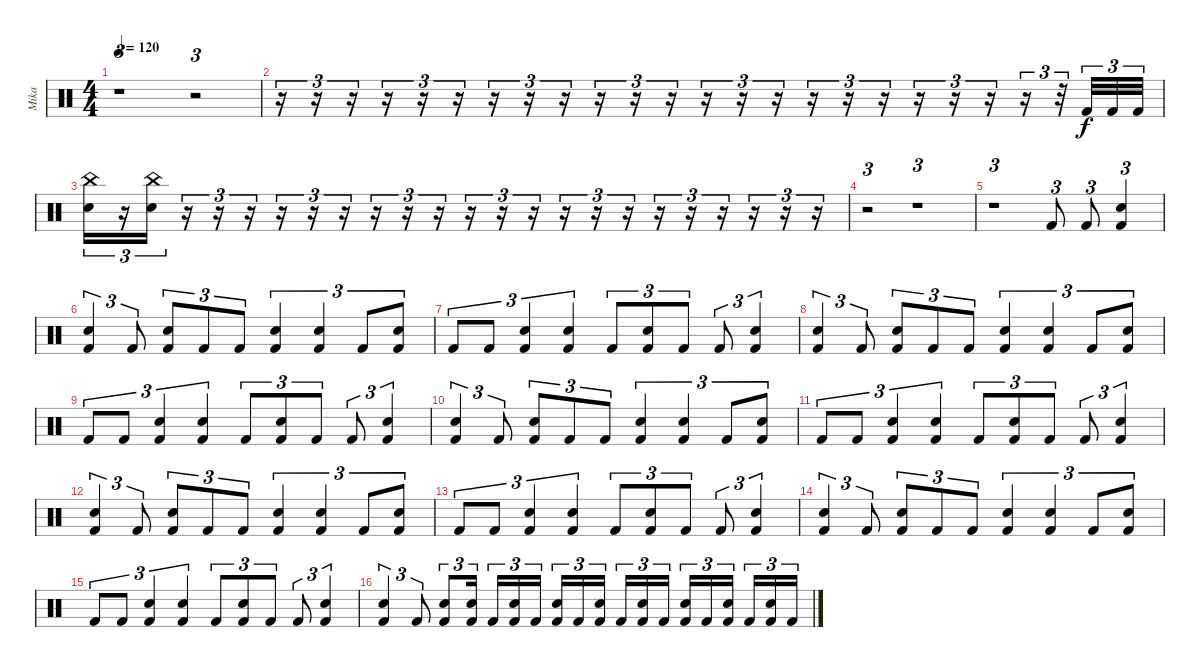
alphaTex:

\track ("Mika" "Mika") {instrument percussion}
\staff {score}
\articulation defaults
\ts (4 4)
\tempo 120
\clef neutral
\ks c
r.1{tu (3 2) dy f} r.2{tu (3 2)} |
r.16{tu (3 2)} r.16{tu (3 2)} r.16{tu (3 2)} r.16{tu (3 2)} r.16{tu (3 2)} r.16{tu (3 2)} r.16{tu (3 2)} r.16{tu (3 2)} r.16{tu (3 2)} r.16{tu (3 2)} r.16{tu (3 2)} r.16{tu (3 2)} r.16{tu (3 2)} r.16{tu (3 2)} r.16{tu (3 2)} r.16{tu (3 2)} r.16{tu (3 2)} r.16{tu (3 2)} r.16{tu (3 2)} r.16{tu (3 2)} r.16{tu (3 2)} r.16{tu (3 2)} r.32{tu (3 2)} "Kick (hit) 2".32{tu (3 2)} "Kick (hit) 2".32{tu (3 2)} "Kick (hit) 2".32{tu (3 2)} |
("China (hit)" "Electric Snare (hit)").16{tu (3 2)} r.16{tu (3 2)} ("China (hit)" "Electric Snare (hit)").16{tu (3 2)} r.16{tu (3 2)} r.16{tu (3 2)} r.16{tu (3 2)} r.16{tu (3 2)} r.16{tu (3 2)} r.16{tu (3 2)} r.16{tu (3 2)} r.16{tu (3 2)} r.16{tu (3 2)} r.16{tu (3 2)} r.16{tu (3 2)} r.16{tu (3 2)} r.16{tu (3 2)} r.16{tu (3 2)} r.16{tu (3 2)} r.16{tu (3 2)} r.16{tu (3 2)} r.16{tu (3 2)} r.16{tu (3 2)} r.16{tu (3 2)} r.16{tu (3 2)} |
r.2{tu (3 2)} r.1{tu (3 2)} |
r.1{tu (3 2)} "Kick (hit) 2".8{tu (3 2)} "Kick (hit) 2".8{tu (3 2)} ("Electric Snare (hit)" "Kick (hit) 2").4{tu (3 2)} |
("Electric Snare (hit)" "Kick (hit) 2").4{tu (3 2)} "Kick (hit) 2".8{tu (3 2)} ("Electric Snare (hit)" "Kick (hit) 2").8{tu (3 2)} "Kick (hit) 2".8{tu (3 2)} "Kick (hit) 2".8{tu (3 2)} ("Electric Snare (hit)" "Kick (hit) 2").4{tu (3 2)} ("Electric Snare (hit)" "Kick (hit) 2").4{tu (3 2)} "Kick (hit) 2".8{tu (3 2)} ("Electric Snare (hit)" "Kick (hit) 2").8{tu (3 2)} |
"Kick (hit) 2".8{tu (3 2)} "Kick (hit) 2".8{tu (3 2)} ("Electric Snare (hit)" "Kick (hit) 2").4{tu (3 2)} ("Electric Snare (hit)" "Kick (hit) 2").4{tu (3 2)} "Kick (hit) 2".8{tu (3 2)} ("Electric Snare (hit)" "Kick (hit) 2").8{tu (3 2)} "Kick (hit) 2".8{tu (3 2)} "Kick (hit) 2".8{tu (3 2)} ("Electric Snare (hit)" "Kick (hit) 2").4{tu (3 2)} |
("Electric Snare (hit)" "Kick (hit) 2").4{tu (3 2)} "Kick (hit) 2".8{tu (3 2)} ("Electric Snare (hit)" "Kick (hit) 2").8{tu (3 2)} "Kick (hit) 2".8{tu (3 2)} "Kick (hit) 2".8{tu (3 2)} ("Electric Snare (hit)" "Kick (hit) 2").4{tu (3 2)} ("Electric Snare (hit)" "Kick (hit) 2").4{tu (3 2)} "Kick (hit) 2".8{tu (3 2)} ("Electric Snare (hit)" "Kick (hit) 2").8{tu (3 2)} |
"Kick (hit) 2".8{tu (3 2)} "Kick (hit) 2".8{tu (3 2)} ("Electric Snare (hit)" "Kick (hit) 2").4{tu (3 2)} ("Electric Snare (hit)" "Kick (hit) 2").4{tu (3 2)} "Kick (hit) 2".8{tu (3 2)} ("Electric Snare (hit)" "Kick (hit) 2").8{tu (3 2)} "Kick (hit) 2".8{tu (3 2)} "Kick (hit) 2".8{tu (3 2)} ("Electric Snare (hit)" "Kick (hit) 2").4{tu (3 2)} |
("Electric Snare (hit)" "Kick (hit) 2").4{tu (3 2)} "Kick (hit) 2".8{tu (3 2)} ("Electric Snare (hit)" "Kick (hit) 2").8{tu (3 2)} "Kick (hit) 2".8{tu (3 2)} "Kick (hit) 2".8{tu (3 2)} ("Electric Snare (hit)" "Kick (hit) 2").4{tu (3 2)} ("Electric Snare (hit)" "Kick (hit) 2").4{tu (3 2)} "Kick (hit) 2".8{tu (3 2)} ("Electric Snare (hit)" "Kick (hit) 2").8{tu (3 2)} |
"Kick (hit) 2".8{tu (3 2)} "Kick (hit) 2".8{tu (3 2)} ("Electric Snare (hit)" "Kick (hit) 2").4{tu (3 2)} ("Electric Snare (hit)" "Kick (hit) 2").4{tu (3 2)} "Kick (hit) 2".8{tu (3 2)} ("Electric Snare (hit)" "Kick (hit) 2").8{tu (3 2)} "Kick (hit) 2".8{tu (3 2)} "Kick (hit) 2".8{tu (3 2)} ("Electric Snare (hit)" "Kick (hit) 2").4{tu (3 2)} |
("Electric Snare (hit)" "Kick (hit) 2").4{tu (3 2)} "Kick (hit) 2".8{tu (3 2)} ("Electric Snare (hit)" "Kick (hit) 2").8{tu (3 2)} "Kick (hit) 2".8{tu (3 2)} "Kick (hit) 2".8{tu (3 2)} ("Electric Snare (hit)" "Kick (hit) 2").4{tu (3 2)} ("Electric Snare (hit)" "Kick (hit) 2").4{tu (3 2)} "Kick (hit) 2".8{tu (3 2)} ("Electric Snare (hit)" "Kick (hit) 2").8{tu (3 2)} |
"Kick (hit) 2".8{tu (3 2)} "Kick (hit) 2".8{tu (3 2)} ("Electric Snare (hit)" "Kick (hit) 2").4{tu (3 2)} ("Electric Snare (hit)" "Kick (hit) 2").4{tu (3 2)} "Kick (hit) 2".8{tu (3 2)} ("Electric Snare (hit)" "Kick (hit) 2").8{tu (3 2)} "Kick (hit) 2".8{tu (3 2)} "Kick (hit) 2".8{tu (3 2)} ("Electric Snare (hit)" "Kick (hit) 2").4{tu (3 2)} |
("Electric Snare (hit)" "Kick (hit) 2").4{tu (3 2)} "Kick (hit) 2".8{tu (3 2)} ("Electric Snare (hit)" "Kick (hit) 2").8{tu (3 2)} "Kick (hit) 2".8{tu (3 2)} "Kick (hit) 2".8{tu (3 2)} ("Electric Snare (hit)" "Kick (hit) 2").4{tu (3 2)} ("Electric Snare (hit)" "Kick (hit) 2").4{tu (3 2)} "Kick (hit) 2".8{tu (3 2)} ("Electric Snare (hit)" "Kick (hit) 2").8{tu (3 2)} |
"Kick (hit) 2".8{tu (3 2)} "Kick (hit) 2".8{tu (3 2)} ("Electric Snare (hit)" "Kick (hit) 2").4{tu (3 2)} ("Electric Snare (hit)" "Kick (hit) 2").4{tu (3 2)} "Kick (hit) 2".8{tu (3 2)} ("Electric Snare (hit)" "Kick (hit) 2").8{tu (3 2)} "Kick (hit) 2".8{tu (3 2)} "Kick (hit) 2".8{tu (3 2)} ("Electric Snare (hit)" "Kick (hit) 2").4{tu (3 2)} |
("Electric Snare (hit)" "Kick (hit) 2").4{tu (3 2)} "Kick (hit) 2".8{tu (3 2)} ("Electric Snare (hit)" "Kick (hit) 2").8{tu (3 2)} ("Electric Snare (hit)" "Kick (hit) 2").16{tu (3 2) beam splitsecondary} "Kick (hit) 2".16{tu (3 2)} ("Electric Snare (hit)" "Kick (hit) 2").16{tu (3 2)} "Kick (hit) 2".16{tu (3 2)} ("Electric Snare (hit)" "Kick (hit) 2").16{tu (3 2)} "Kick (hit) 2".16{tu (3 2)} ("Electric Snare (hit)" "Kick (hit) 2").16{tu (3 2) beam splitsecondary} "Kick (hit) 2".16{tu (3 2)} ("Electric Snare (hit)" "Kick (hit) 2").16{tu (3 2)} "Kick (hit) 2".16{tu (3 2)} ("Electric Snare (hit)" "Kick (hit) 2").16{tu (3 2)} "Kick (hit) 2".16{tu (3 2)} ("Electric Snare (hit)" "Kick (hit) 2").16{tu (3 2) beam splitsecondary} "Kick (hit) 2".16{tu (3 2)} ("Electric Snare (hit)" "Kick (hit) 2").16{tu (3 2)} "Kick (hit) 2".16{tu (3 2)}
